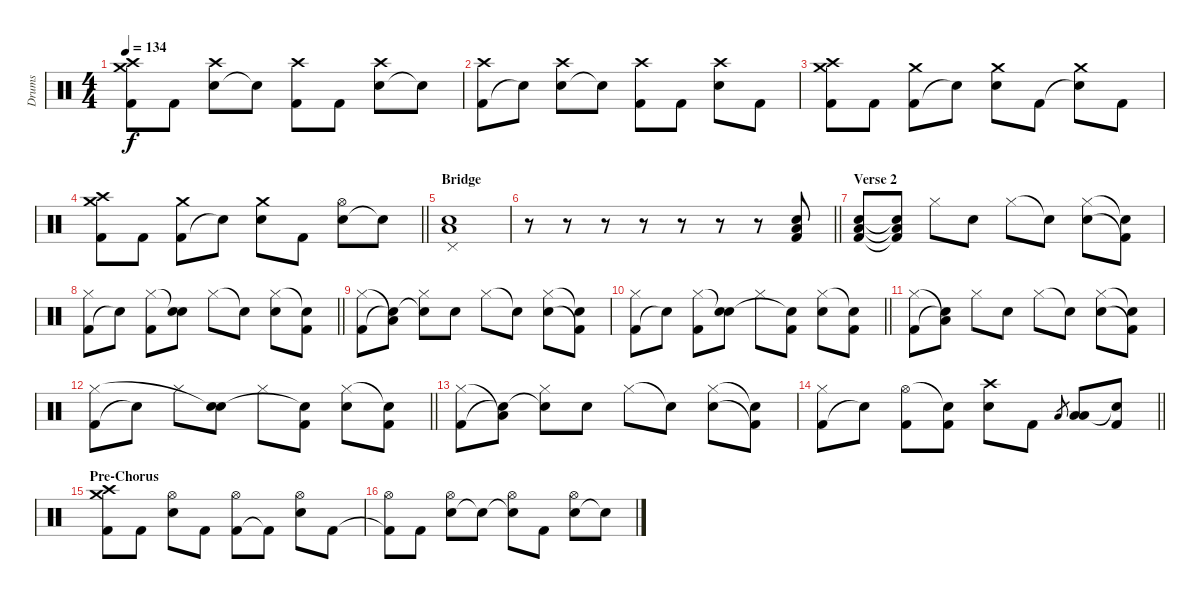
\track ("Drums" "Drums") {instrument percussion}
\staff {score}
\articulation defaults
\ts (4 4)
\tempo 134
\clef neutral
\ks c
("Kick (hit) 2"{t} "Crash medium (hit)"{t} "Crash high (hit)"{t}).8{dy f} "Kick (hit) 2".8 ("Electric Snare (hit)" "Crash high (hit)").8 "Snare (hit)"{t}.8 ("Kick (hit) 2" "Crash high (hit)").8 "Kick (hit) 2".8 ("Electric Snare (hit)" "Crash high (hit)").8 "Snare (hit)"{t}.8 |
("Kick (hit) 2" "Crash high (hit)").8 "Snare (hit)"{t}.8 ("Electric Snare (hit)" "Crash high (hit)").8 "Snare (hit)"{t}.8 ("Kick (hit) 2" "Crash high (hit)").8 "Kick (hit) 2".8 ("Electric Snare (hit)" "Crash high (hit)").8 "Kick (hit) 2".8 |
("Kick (hit) 2" "Crash medium (hit)" "Crash high (hit)").8 "Kick (hit) 2".8 ("Kick (hit) 2" "Crash medium (hit)").8 "Snare (hit)"{t}.8 ("Electric Snare (hit)" "Crash medium (hit)").8 "Kick (hit) 2".8 ("Electric Snare (hit)"{t} "Crash medium (hit)").8 "Kick (hit) 2".8 |
\barLineRight lightlight
("Kick (hit) 2" "Crash medium (hit)" "Crash high (hit)").8 "Kick (hit) 2".8 ("Kick (hit) 2" "Crash medium (hit)").8 "Snare (hit)"{t}.8 ("Electric Snare (hit)" "Crash medium (hit)").8 "Kick (hit) 2".8 ("Electric Snare (hit)" "Hi-Hat (open)").8 "Snare (hit)"{t}.8 |
\section ("" "Bridge")
("Electric Snare (hit)" "Low Floor Tom (hit)" "Pedal Hi-Hat (hit)").1 |
\barLineRight lightlight
r.8 r.8 r.8 r.8 r.8 r.8 r.8 ("Electric Snare (hit)" "Low Floor Tom (hit)" "Kick (hit) 2").8 |
\section ("" "Verse 2")
("Electric Snare (hit)" "Low Floor Tom (hit)" "Kick (hit) 2").8 ("Electric Snare (hit)"{t} "Low Floor Tom (hit)"{t} "Kick (hit) 2"{t}).8 "Hi-Hat (closed)".8 "Electric Snare (hit)".8 "Hi-Hat (closed)".8 "Snare (hit)"{t}.8 ("Electric Snare (hit)" "Hi-Hat (closed)").8 ("Kick (hit) 2"{t} "Snare (hit)"{t}).8 |
\barLineRight lightlight
("Kick (hit) 2" "Hi-Hat (closed)").8 "Snare (hit)"{t}.8 ("Kick (hit) 2" "Hi-Hat (closed)").8 ("Electric Snare (hit)" "Snare (hit)"{t}).8 "Hi-Hat (closed)".8 "Snare (hit)"{t}.8 ("Electric Snare (hit)" "Hi-Hat (closed)").8 ("Kick (hit) 2" "Snare (hit)"{t}).8 |
("Kick (hit) 2" "Hi-Hat (closed)").8 ("Electric Snare (hit)"{t} "Low Floor Tom (hit)"{t}).8 ("Snare (hit)"{t} "Hi-Hat (closed)").8 "Electric Snare (hit)".8 "Hi-Hat (closed)".8 "Snare (hit)"{t}.8 ("Electric Snare (hit)" "Hi-Hat (closed)").8 ("Kick (hit) 2"{t} "Snare (hit)"{t}).8 |
\barLineRight lightlight
("Kick (hit) 2" "Hi-Hat (closed)").8 "Snare (hit)"{t}.8 ("Kick (hit) 2" "Hi-Hat (closed)").8 ("Electric Snare (hit)" "Snare (hit)"{t}).8 "Hi-Hat (closed)".8 ("Kick (hit) 2" "Snare (hit)"{t}).8 ("Electric Snare (hit)" "Hi-Hat (closed)").8 ("Kick (hit) 2" "Snare (hit)"{t}).8 |
("Kick (hit) 2" "Hi-Hat (closed)").8 ("Electric Snare (hit)"{t} "Low Floor Tom (hit)"{t}).8 "Hi-Hat (closed)".8 "Electric Snare (hit)".8 "Hi-Hat (closed)".8 "Snare (hit)"{t}.8 ("Electric Snare (hit)" "Hi-Hat (closed)").8 ("Kick (hit) 2"{t} "Snare (hit)"{t}).8 |
\barLineRight lightlight
("Kick (hit) 2" "Hi-Hat (closed)").8 "Snare (hit)"{t}.8 "Hi-Hat (closed)".8 ("Electric Snare (hit)" "Snare (hit)"{t}).8 "Hi-Hat (closed)".8 ("Kick (hit) 2" "Snare (hit)"{t}).8 ("Electric Snare (hit)" "Hi-Hat (closed)").8 ("Kick (hit) 2" "Snare (hit)"{t}).8 |
("Kick (hit) 2" "Hi-Hat (closed)").8 ("Electric Snare (hit)"{t} "Low Floor Tom (hit)"{t}).8 ("Snare (hit)"{t} "Hi-Hat (closed)").8 "Electric Snare (hit)".8 "Hi-Hat (closed)".8 "Snare (hit)"{t}.8 ("Electric Snare (hit)" "Hi-Hat (closed)").8 ("Kick (hit) 2"{t} "Snare (hit)"{t}).8 |
\barLineRight lightlight
("Kick (hit) 2" "Hi-Hat (closed)").8 "Snare (hit)"{t}.8 ("Kick (hit) 2" "Hi-Hat (open)").8 ("Kick (hit) 2" "Snare (hit)"{t}).8 ("Electric Snare (hit)" "Crash high (hit)").8 "Kick (hit) 2".8 "Low Tom (hit)".8{gr} ("Low Tom (hit)" "Low Floor Tom (hit)").8 ("Kick (hit) 2" "Snare (hit)"{t}).8 |
\section ("" "Pre-Chorus")
("Kick (hit) 2" "Crash medium (hit)" "Crash high (hit)").8 "Kick (hit) 2".8 ("Electric Snare (hit)" "Hi-Hat (open)").8 "Kick (hit) 2".8 ("Kick (hit) 2" "Hi-Hat (open)").8 "Kick (hit) 2"{t}.8 ("Electric Snare (hit)" "Hi-Hat (open)").8 "Kick (hit) 2".8 |
("Kick (hit) 2"{t} "Hi-Hat (open)").8 "Kick (hit) 2".8 ("Electric Snare (hit)" "Hi-Hat (open)").8 "Electric Snare (hit)"{t}.8 ("Snare (hit)"{t} "Hi-Hat (open)").8 "Kick (hit) 2".8 ("Electric Snare (hit)" "Hi-Hat (open)").8 "Electric Snare (hit)"{t}.8
